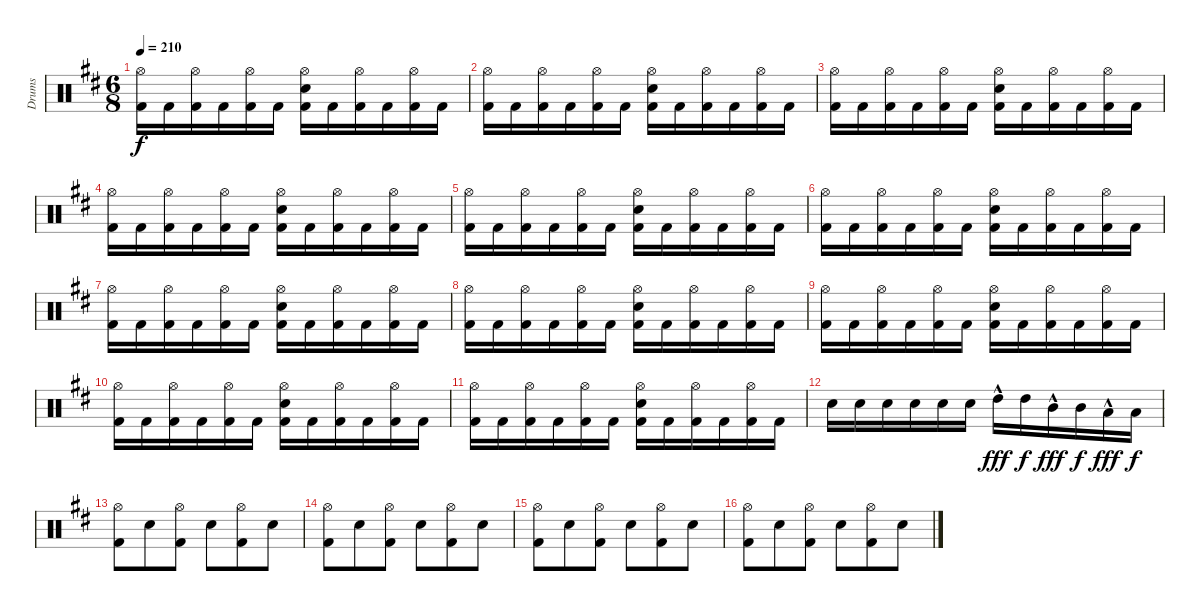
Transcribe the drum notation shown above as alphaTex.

\track ("Drums" "Drums") {instrument percussion}
\staff {score}
\articulation defaults
\ts (6 8)
\tempo 210
\clef neutral
\ks bminor
("Kick (hit) 2" "Hi-Hat (open)").16{dy f} "Kick (hit) 2".16 ("Kick (hit) 2" "Hi-Hat (open)").16 "Kick (hit) 2".16 ("Kick (hit) 2" "Hi-Hat (open)").16 "Kick (hit) 2".16 ("Kick (hit) 2" "Electric Snare (hit)" "Hi-Hat (open)").16 "Kick (hit) 2".16 ("Kick (hit) 2" "Hi-Hat (open)").16 "Kick (hit) 2".16 ("Kick (hit) 2" "Hi-Hat (open)").16 "Kick (hit) 2".16 |
("Kick (hit) 2" "Hi-Hat (open)").16 "Kick (hit) 2".16 ("Kick (hit) 2" "Hi-Hat (open)").16 "Kick (hit) 2".16 ("Kick (hit) 2" "Hi-Hat (open)").16 "Kick (hit) 2".16 ("Kick (hit) 2" "Electric Snare (hit)" "Hi-Hat (open)").16 "Kick (hit) 2".16 ("Kick (hit) 2" "Hi-Hat (open)").16 "Kick (hit) 2".16 ("Kick (hit) 2" "Hi-Hat (open)").16 "Kick (hit) 2".16 |
("Kick (hit) 2" "Hi-Hat (open)").16 "Kick (hit) 2".16 ("Kick (hit) 2" "Hi-Hat (open)").16 "Kick (hit) 2".16 ("Kick (hit) 2" "Hi-Hat (open)").16 "Kick (hit) 2".16 ("Kick (hit) 2" "Electric Snare (hit)" "Hi-Hat (open)").16 "Kick (hit) 2".16 ("Kick (hit) 2" "Hi-Hat (open)").16 "Kick (hit) 2".16 ("Kick (hit) 2" "Hi-Hat (open)").16 "Kick (hit) 2".16 |
("Kick (hit) 2" "Hi-Hat (open)").16 "Kick (hit) 2".16 ("Kick (hit) 2" "Hi-Hat (open)").16 "Kick (hit) 2".16 ("Kick (hit) 2" "Hi-Hat (open)").16 "Kick (hit) 2".16 ("Kick (hit) 2" "Electric Snare (hit)" "Hi-Hat (open)").16 "Kick (hit) 2".16 ("Kick (hit) 2" "Hi-Hat (open)").16 "Kick (hit) 2".16 ("Kick (hit) 2" "Hi-Hat (open)").16 "Kick (hit) 2".16 |
("Kick (hit) 2" "Hi-Hat (open)").16 "Kick (hit) 2".16 ("Kick (hit) 2" "Hi-Hat (open)").16 "Kick (hit) 2".16 ("Kick (hit) 2" "Hi-Hat (open)").16 "Kick (hit) 2".16 ("Kick (hit) 2" "Electric Snare (hit)" "Hi-Hat (open)").16 "Kick (hit) 2".16 ("Kick (hit) 2" "Hi-Hat (open)").16 "Kick (hit) 2".16 ("Kick (hit) 2" "Hi-Hat (open)").16 "Kick (hit) 2".16 |
("Kick (hit) 2" "Hi-Hat (open)").16 "Kick (hit) 2".16 ("Kick (hit) 2" "Hi-Hat (open)").16 "Kick (hit) 2".16 ("Kick (hit) 2" "Hi-Hat (open)").16 "Kick (hit) 2".16 ("Kick (hit) 2" "Electric Snare (hit)" "Hi-Hat (open)").16 "Kick (hit) 2".16 ("Kick (hit) 2" "Hi-Hat (open)").16 "Kick (hit) 2".16 ("Kick (hit) 2" "Hi-Hat (open)").16 "Kick (hit) 2".16 |
("Kick (hit) 2" "Hi-Hat (open)").16 "Kick (hit) 2".16 ("Kick (hit) 2" "Hi-Hat (open)").16 "Kick (hit) 2".16 ("Kick (hit) 2" "Hi-Hat (open)").16 "Kick (hit) 2".16 ("Kick (hit) 2" "Electric Snare (hit)" "Hi-Hat (open)").16 "Kick (hit) 2".16 ("Kick (hit) 2" "Hi-Hat (open)").16 "Kick (hit) 2".16 ("Kick (hit) 2" "Hi-Hat (open)").16 "Kick (hit) 2".16 |
("Kick (hit) 2" "Hi-Hat (open)").16 "Kick (hit) 2".16 ("Kick (hit) 2" "Hi-Hat (open)").16 "Kick (hit) 2".16 ("Kick (hit) 2" "Hi-Hat (open)").16 "Kick (hit) 2".16 ("Kick (hit) 2" "Electric Snare (hit)" "Hi-Hat (open)").16 "Kick (hit) 2".16 ("Kick (hit) 2" "Hi-Hat (open)").16 "Kick (hit) 2".16 ("Kick (hit) 2" "Hi-Hat (open)").16 "Kick (hit) 2".16 |
("Kick (hit) 2" "Hi-Hat (open)").16 "Kick (hit) 2".16 ("Kick (hit) 2" "Hi-Hat (open)").16 "Kick (hit) 2".16 ("Kick (hit) 2" "Hi-Hat (open)").16 "Kick (hit) 2".16 ("Kick (hit) 2" "Electric Snare (hit)" "Hi-Hat (open)").16 "Kick (hit) 2".16 ("Kick (hit) 2" "Hi-Hat (open)").16 "Kick (hit) 2".16 ("Kick (hit) 2" "Hi-Hat (open)").16 "Kick (hit) 2".16 |
("Kick (hit) 2" "Hi-Hat (open)").16 "Kick (hit) 2".16 ("Kick (hit) 2" "Hi-Hat (open)").16 "Kick (hit) 2".16 ("Kick (hit) 2" "Hi-Hat (open)").16 "Kick (hit) 2".16 ("Kick (hit) 2" "Electric Snare (hit)" "Hi-Hat (open)").16 "Kick (hit) 2".16 ("Kick (hit) 2" "Hi-Hat (open)").16 "Kick (hit) 2".16 ("Kick (hit) 2" "Hi-Hat (open)").16 "Kick (hit) 2".16 |
("Kick (hit) 2" "Hi-Hat (open)").16 "Kick (hit) 2".16 ("Kick (hit) 2" "Hi-Hat (open)").16 "Kick (hit) 2".16 ("Kick (hit) 2" "Hi-Hat (open)").16 "Kick (hit) 2".16 ("Kick (hit) 2" "Electric Snare (hit)" "Hi-Hat (open)").16 "Kick (hit) 2".16 ("Kick (hit) 2" "Hi-Hat (open)").16 "Kick (hit) 2".16 ("Kick (hit) 2" "Hi-Hat (open)").16 "Kick (hit) 2".16 |
"Electric Snare (hit)".16 "Electric Snare (hit)".16 "Electric Snare (hit)".16 "Electric Snare (hit)".16 "Electric Snare (hit)".16 "Electric Snare (hit)".16 "High Tom (hit)"{hac}.16{dy fff} "High Tom (hit)".16{dy f} "Mid Tom (hit)"{hac}.16{dy fff} "Mid Tom (hit)".16{dy f} "Low Tom (hit)"{hac}.16{dy fff} "Low Tom (hit)".16{dy f} |
("Kick (hit) 2" "Hi-Hat (open)").8 "Electric Snare (hit)".8 ("Kick (hit) 2" "Hi-Hat (open)").8 "Electric Snare (hit)".8 ("Kick (hit) 2" "Hi-Hat (open)").8 "Electric Snare (hit)".8 |
("Kick (hit) 2" "Hi-Hat (open)").8 "Electric Snare (hit)".8 ("Kick (hit) 2" "Hi-Hat (open)").8 "Electric Snare (hit)".8 ("Kick (hit) 2" "Hi-Hat (open)").8 "Electric Snare (hit)".8 |
("Kick (hit) 2" "Hi-Hat (open)").8 "Electric Snare (hit)".8 ("Kick (hit) 2" "Hi-Hat (open)").8 "Electric Snare (hit)".8 ("Kick (hit) 2" "Hi-Hat (open)").8 "Electric Snare (hit)".8 |
("Kick (hit) 2" "Hi-Hat (open)").8 "Electric Snare (hit)".8 ("Kick (hit) 2" "Hi-Hat (open)").8 "Electric Snare (hit)".8 ("Kick (hit) 2" "Hi-Hat (open)").8 "Electric Snare (hit)".8
